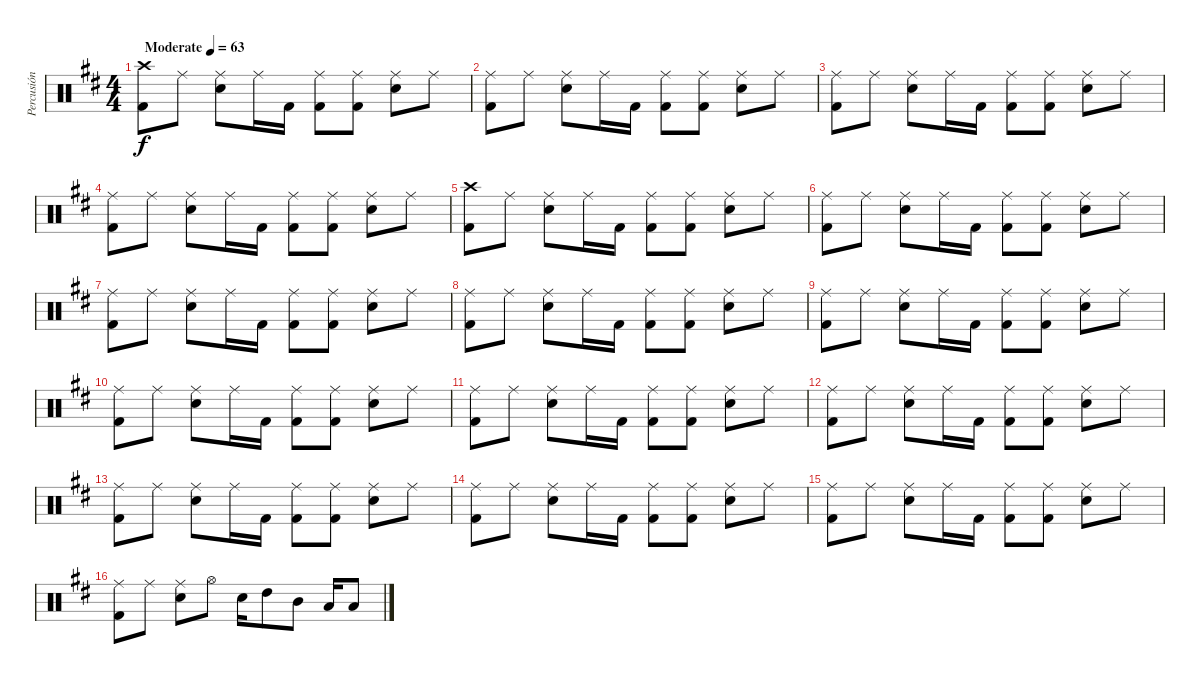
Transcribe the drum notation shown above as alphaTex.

\track ("Percusión" "Percusión") {instrument percussion}
\staff {score}
\articulation defaults
\ts (4 4)
\tempo (63 "Moderate")
\clef neutral
\ks d
("Crash high (hit)" "Kick (hit) 2").8{dy f} "Ride (middle)".8 ("Ride (middle)" "Snare (hit) 2").8 "Ride (middle)".16 "Kick (hit) 2".16 ("Ride (middle)" "Kick (hit) 2").8 ("Ride (middle)" "Kick (hit) 2").8 ("Ride (middle)" "Snare (hit) 2").8 "Ride (middle)".8 |
("Ride (middle)" "Kick (hit) 2").8 "Ride (middle)".8 ("Ride (middle)" "Snare (hit) 2").8 "Ride (middle)".16 "Kick (hit) 2".16 ("Ride (middle)" "Kick (hit) 2").8 ("Ride (middle)" "Kick (hit) 2").8 ("Ride (middle)" "Snare (hit) 2").8 "Ride (middle)".8 |
("Ride (middle)" "Kick (hit) 2").8 "Ride (middle)".8 ("Ride (middle)" "Snare (hit) 2").8 "Ride (middle)".16 "Kick (hit) 2".16 ("Ride (middle)" "Kick (hit) 2").8 ("Ride (middle)" "Kick (hit) 2").8 ("Ride (middle)" "Snare (hit) 2").8 "Ride (middle)".8 |
("Ride (middle)" "Kick (hit) 2").8 "Ride (middle)".8 ("Ride (middle)" "Snare (hit) 2").8 "Ride (middle)".16 "Kick (hit) 2".16 ("Ride (middle)" "Kick (hit) 2").8 ("Ride (middle)" "Kick (hit) 2").8 ("Ride (middle)" "Snare (hit) 2").8 "Ride (middle)".8 |
("Crash high (hit)" "Kick (hit) 2").8 "Ride (middle)".8 ("Ride (middle)" "Snare (hit) 2").8 "Ride (middle)".16 "Kick (hit) 2".16 ("Ride (middle)" "Kick (hit) 2").8 ("Ride (middle)" "Kick (hit) 2").8 ("Ride (middle)" "Snare (hit) 2").8 "Ride (middle)".8 |
("Ride (middle)" "Kick (hit) 2").8 "Ride (middle)".8 ("Ride (middle)" "Snare (hit) 2").8 "Ride (middle)".16 "Kick (hit) 2".16 ("Ride (middle)" "Kick (hit) 2").8 ("Ride (middle)" "Kick (hit) 2").8 ("Ride (middle)" "Snare (hit) 2").8 "Ride (middle)".8 |
("Ride (middle)" "Kick (hit) 2").8 "Ride (middle)".8 ("Ride (middle)" "Snare (hit) 2").8 "Ride (middle)".16 "Kick (hit) 2".16 ("Ride (middle)" "Kick (hit) 2").8 ("Ride (middle)" "Kick (hit) 2").8 ("Ride (middle)" "Snare (hit) 2").8 "Ride (middle)".8 |
("Ride (middle)" "Kick (hit) 2").8 "Ride (middle)".8 ("Ride (middle)" "Snare (hit) 2").8 "Ride (middle)".16 "Kick (hit) 2".16 ("Ride (middle)" "Kick (hit) 2").8 ("Ride (middle)" "Kick (hit) 2").8 ("Ride (middle)" "Snare (hit) 2").8 "Ride (middle)".8 |
("Ride (middle)" "Kick (hit) 2").8 "Ride (middle)".8 ("Ride (middle)" "Snare (hit) 2").8 "Ride (middle)".16 "Kick (hit) 2".16 ("Ride (middle)" "Kick (hit) 2").8 ("Ride (middle)" "Kick (hit) 2").8 ("Ride (middle)" "Snare (hit) 2").8 "Ride (middle)".8 |
("Ride (middle)" "Kick (hit) 2").8 "Ride (middle)".8 ("Ride (middle)" "Snare (hit) 2").8 "Ride (middle)".16 "Kick (hit) 2".16 ("Ride (middle)" "Kick (hit) 2").8 ("Ride (middle)" "Kick (hit) 2").8 ("Ride (middle)" "Snare (hit) 2").8 "Ride (middle)".8 |
("Ride (middle)" "Kick (hit) 2").8 "Ride (middle)".8 ("Ride (middle)" "Snare (hit) 2").8 "Ride (middle)".16 "Kick (hit) 2".16 ("Ride (middle)" "Kick (hit) 2").8 ("Ride (middle)" "Kick (hit) 2").8 ("Ride (middle)" "Snare (hit) 2").8 "Ride (middle)".8 |
("Ride (middle)" "Kick (hit) 2").8 "Ride (middle)".8 ("Ride (middle)" "Snare (hit) 2").8 "Ride (middle)".16 "Kick (hit) 2".16 ("Ride (middle)" "Kick (hit) 2").8 ("Ride (middle)" "Kick (hit) 2").8 ("Ride (middle)" "Snare (hit) 2").8 "Ride (middle)".8 |
("Ride (middle)" "Kick (hit) 2").8 "Ride (middle)".8 ("Ride (middle)" "Snare (hit) 2").8 "Ride (middle)".16 "Kick (hit) 2".16 ("Ride (middle)" "Kick (hit) 2").8 ("Ride (middle)" "Kick (hit) 2").8 ("Ride (middle)" "Snare (hit) 2").8 "Ride (middle)".8 |
("Ride (middle)" "Kick (hit) 2").8 "Ride (middle)".8 ("Ride (middle)" "Snare (hit) 2").8 "Ride (middle)".16 "Kick (hit) 2".16 ("Ride (middle)" "Kick (hit) 2").8 ("Ride (middle)" "Kick (hit) 2").8 ("Ride (middle)" "Snare (hit) 2").8 "Ride (middle)".8 |
("Ride (middle)" "Kick (hit) 2").8 "Ride (middle)".8 ("Ride (middle)" "Snare (hit) 2").8 "Ride (middle)".16 "Kick (hit) 2".16 ("Ride (middle)" "Kick (hit) 2").8 ("Ride (middle)" "Kick (hit) 2").8 ("Ride (middle)" "Snare (hit) 2").8 "Ride (middle)".8 |
("Ride (middle)" "Kick (hit) 2").8 "Ride (middle)".8 ("Ride (middle)" "Snare (hit) 2").8 "Hi-Hat (open)".8 "Snare (hit) 2".16 "High Tom (hit)".8 "Mid Tom (hit)".8 "Low Tom (hit)".16 "Low Tom (hit)".8
